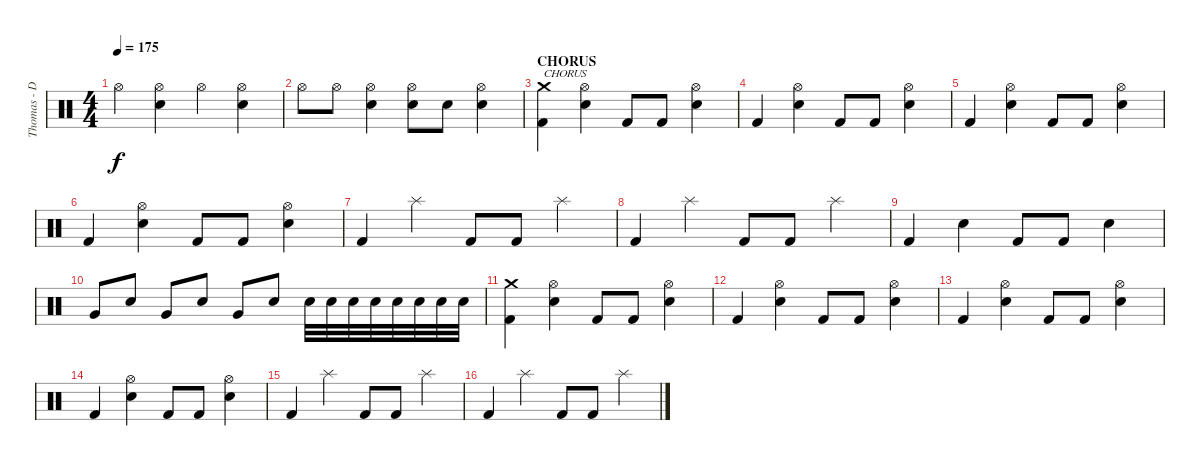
\track ("Thomas - Drums" "Thomas - D") {instrument percussion}
\staff {score}
\articulation defaults
\ts (4 4)
\tempo 175
\clef neutral
\ks c "Hi-Hat (open)".4{dy f}
("Electric Snare (hit)" "Hi-Hat (open)").4 "Hi-Hat (open)".4 ("Electric Snare (hit)" "Hi-Hat (open)").4 |
"Hi-Hat (open)".8 "Hi-Hat (open)".8 ("Electric Snare (hit)" "Hi-Hat (open)").4 ("Electric Snare (hit)" "Hi-Hat (open)").8 "Electric Snare (hit)".8 ("Electric Snare (hit)" "Hi-Hat (open)").4 |
\section ("" "CHORUS")
("Crash medium (hit)" "Kick (hit) 2").4{txt "CHORUS"} ("Hi-Hat (open)" "Electric Snare (hit)").4 "Kick (hit) 2".8 "Kick (hit) 2".8 ("Hi-Hat (open)" "Electric Snare (hit)").4 |
"Kick (hit) 2".4 ("Hi-Hat (open)" "Electric Snare (hit)").4 "Kick (hit) 2".8 "Kick (hit) 2".8 ("Hi-Hat (open)" "Electric Snare (hit)").4 |
"Kick (hit) 2".4 ("Hi-Hat (open)" "Electric Snare (hit)").4 "Kick (hit) 2".8 "Kick (hit) 2".8 ("Hi-Hat (open)" "Electric Snare (hit)").4 |
"Kick (hit) 2".4 ("Hi-Hat (open)" "Electric Snare (hit)").4 "Kick (hit) 2".8 "Kick (hit) 2".8 ("Hi-Hat (open)" "Electric Snare (hit)").4 |
"Kick (hit) 2".4 "Splash (hit)".4 "Kick (hit) 2".8 "Kick (hit) 2".8 "Splash (hit)".4 |
"Kick (hit) 2".4 "Splash (hit)".4 "Kick (hit) 2".8 "Kick (hit) 2".8 "Splash (hit)".4 |
"Kick (hit) 2".4 "Electric Snare (hit)".4 "Kick (hit) 2".8 "Kick (hit) 2".8 "Electric Snare (hit)".4 |
"Very Low Tom (hit)".8 "Electric Snare (hit)".8 "Very Low Tom (hit)".8 "Electric Snare (hit)".8 "Very Low Tom (hit)".8 "Electric Snare (hit)".8 "Electric Snare (hit)".32 "Electric Snare (hit)".32 "Electric Snare (hit)".32 "Electric Snare (hit)".32 "Electric Snare (hit)".32 "Electric Snare (hit)".32 "Electric Snare (hit)".32 "Electric Snare (hit)".32 |
("Crash medium (hit)" "Kick (hit) 2").4 ("Hi-Hat (open)" "Electric Snare (hit)").4 "Kick (hit) 2".8 "Kick (hit) 2".8 ("Hi-Hat (open)" "Electric Snare (hit)").4 |
"Kick (hit) 2".4 ("Hi-Hat (open)" "Electric Snare (hit)").4 "Kick (hit) 2".8 "Kick (hit) 2".8 ("Hi-Hat (open)" "Electric Snare (hit)").4 |
"Kick (hit) 2".4 ("Hi-Hat (open)" "Electric Snare (hit)").4 "Kick (hit) 2".8 "Kick (hit) 2".8 ("Hi-Hat (open)" "Electric Snare (hit)").4 |
"Kick (hit) 2".4 ("Hi-Hat (open)" "Electric Snare (hit)").4 "Kick (hit) 2".8 "Kick (hit) 2".8 ("Hi-Hat (open)" "Electric Snare (hit)").4 |
"Kick (hit) 2".4 "Splash (hit)".4 "Kick (hit) 2".8 "Kick (hit) 2".8 "Splash (hit)".4 |
"Kick (hit) 2".4 "Splash (hit)".4 "Kick (hit) 2".8 "Kick (hit) 2".8 "Splash (hit)".4
